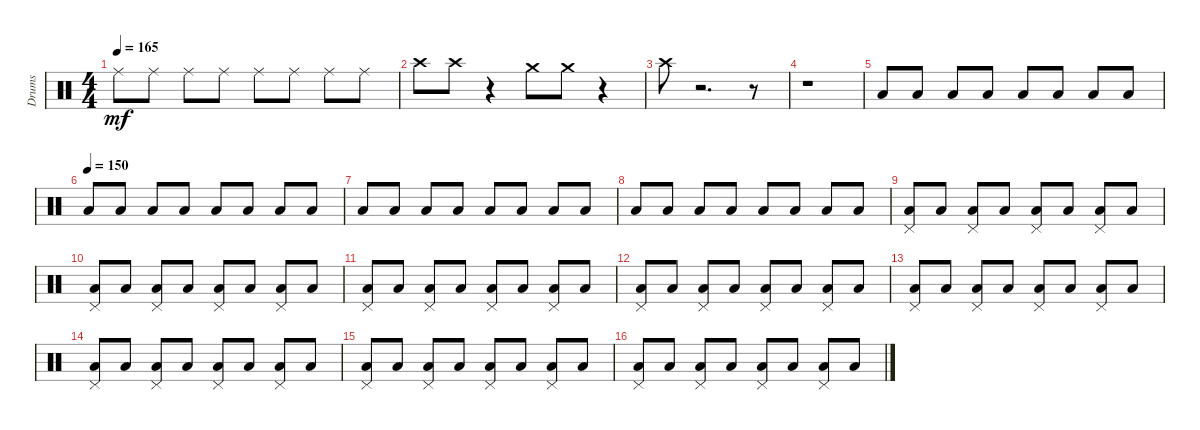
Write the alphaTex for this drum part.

\track ("Drums" "Drums") {instrument percussion}
\staff {score}
\articulation defaults
\ts (4 4)
\tempo 165
\clef neutral
\ks c "Ride (middle)".8{dy mf} "Ride (middle)".8 "Ride (middle)".8 "Ride (middle)".8 "Ride (middle)".8 "Ride (middle)".8 "Ride (middle)".8 "Ride (middle)".8
|
"Crash high (hit)".8 "Crash high (hit)".8 r.4 "Crash medium (hit)".8 "Crash medium (hit)".8 r.4 |
"Crash high (hit)".8 r.2{d} r.8 |
r.1 |
"Low Floor Tom (hit)".8 "Low Floor Tom (hit)".8 "Low Floor Tom (hit)".8 "Low Floor Tom (hit)".8 "Low Floor Tom (hit)".8 "Low Floor Tom (hit)".8 "Low Floor Tom (hit)".8 "Low Floor Tom (hit)".8 |
\tempo (150)
"Low Floor Tom (hit)".8 "Low Floor Tom (hit)".8 "Low Floor Tom (hit)".8 "Low Floor Tom (hit)".8 "Low Floor Tom (hit)".8 "Low Floor Tom (hit)".8 "Low Floor Tom (hit)".8 "Low Floor Tom (hit)".8 |
"Low Floor Tom (hit)".8 "Low Floor Tom (hit)".8 "Low Floor Tom (hit)".8 "Low Floor Tom (hit)".8 "Low Floor Tom (hit)".8 "Low Floor Tom (hit)".8 "Low Floor Tom (hit)".8 "Low Floor Tom (hit)".8 |
"Low Floor Tom (hit)".8 "Low Floor Tom (hit)".8 "Low Floor Tom (hit)".8 "Low Floor Tom (hit)".8 "Low Floor Tom (hit)".8 "Low Floor Tom (hit)".8 "Low Floor Tom (hit)".8 "Low Floor Tom (hit)".8 |
("Low Floor Tom (hit)" "Pedal Hi-Hat (hit)").8 "Low Floor Tom (hit)".8 ("Low Floor Tom (hit)" "Pedal Hi-Hat (hit)").8 "Low Floor Tom (hit)".8 ("Low Floor Tom (hit)" "Pedal Hi-Hat (hit)").8 "Low Floor Tom (hit)".8 ("Low Floor Tom (hit)" "Pedal Hi-Hat (hit)").8 "Low Floor Tom (hit)".8 |
("Low Floor Tom (hit)" "Pedal Hi-Hat (hit)").8 "Low Floor Tom (hit)".8 ("Low Floor Tom (hit)" "Pedal Hi-Hat (hit)").8 "Low Floor Tom (hit)".8 ("Low Floor Tom (hit)" "Pedal Hi-Hat (hit)").8 "Low Floor Tom (hit)".8 ("Low Floor Tom (hit)" "Pedal Hi-Hat (hit)").8 "Low Floor Tom (hit)".8 |
("Pedal Hi-Hat (hit)" "Low Floor Tom (hit)").8 "Low Floor Tom (hit)".8 ("Pedal Hi-Hat (hit)" "Low Floor Tom (hit)").8 "Low Floor Tom (hit)".8 ("Pedal Hi-Hat (hit)" "Low Floor Tom (hit)").8 "Low Floor Tom (hit)".8 ("Pedal Hi-Hat (hit)" "Low Floor Tom (hit)").8 "Low Floor Tom (hit)".8 |
("Pedal Hi-Hat (hit)" "Low Floor Tom (hit)").8 "Low Floor Tom (hit)".8 ("Pedal Hi-Hat (hit)" "Low Floor Tom (hit)").8 "Low Floor Tom (hit)".8 ("Pedal Hi-Hat (hit)" "Low Floor Tom (hit)").8 "Low Floor Tom (hit)".8 ("Pedal Hi-Hat (hit)" "Low Floor Tom (hit)").8 "Low Floor Tom (hit)".8 |
("Pedal Hi-Hat (hit)" "Low Floor Tom (hit)").8 "Low Floor Tom (hit)".8 ("Pedal Hi-Hat (hit)" "Low Floor Tom (hit)").8 "Low Floor Tom (hit)".8 ("Pedal Hi-Hat (hit)" "Low Floor Tom (hit)").8 "Low Floor Tom (hit)".8 ("Pedal Hi-Hat (hit)" "Low Floor Tom (hit)").8 "Low Floor Tom (hit)".8 |
("Pedal Hi-Hat (hit)" "Low Floor Tom (hit)").8 "Low Floor Tom (hit)".8 ("Pedal Hi-Hat (hit)" "Low Floor Tom (hit)").8 "Low Floor Tom (hit)".8 ("Pedal Hi-Hat (hit)" "Low Floor Tom (hit)").8 "Low Floor Tom (hit)".8 ("Pedal Hi-Hat (hit)" "Low Floor Tom (hit)").8 "Low Floor Tom (hit)".8 |
("Low Floor Tom (hit)" "Pedal Hi-Hat (hit)").8 "Low Floor Tom (hit)".8 ("Low Floor Tom (hit)" "Pedal Hi-Hat (hit)").8 "Low Floor Tom (hit)".8 ("Low Floor Tom (hit)" "Pedal Hi-Hat (hit)").8 "Low Floor Tom (hit)".8 ("Low Floor Tom (hit)" "Pedal Hi-Hat (hit)").8 "Low Floor Tom (hit)".8 |
("Low Floor Tom (hit)" "Pedal Hi-Hat (hit)").8 "Low Floor Tom (hit)".8 ("Low Floor Tom (hit)" "Pedal Hi-Hat (hit)").8 "Low Floor Tom (hit)".8 ("Low Floor Tom (hit)" "Pedal Hi-Hat (hit)").8 "Low Floor Tom (hit)".8 ("Low Floor Tom (hit)" "Pedal Hi-Hat (hit)").8 "Low Floor Tom (hit)".8
